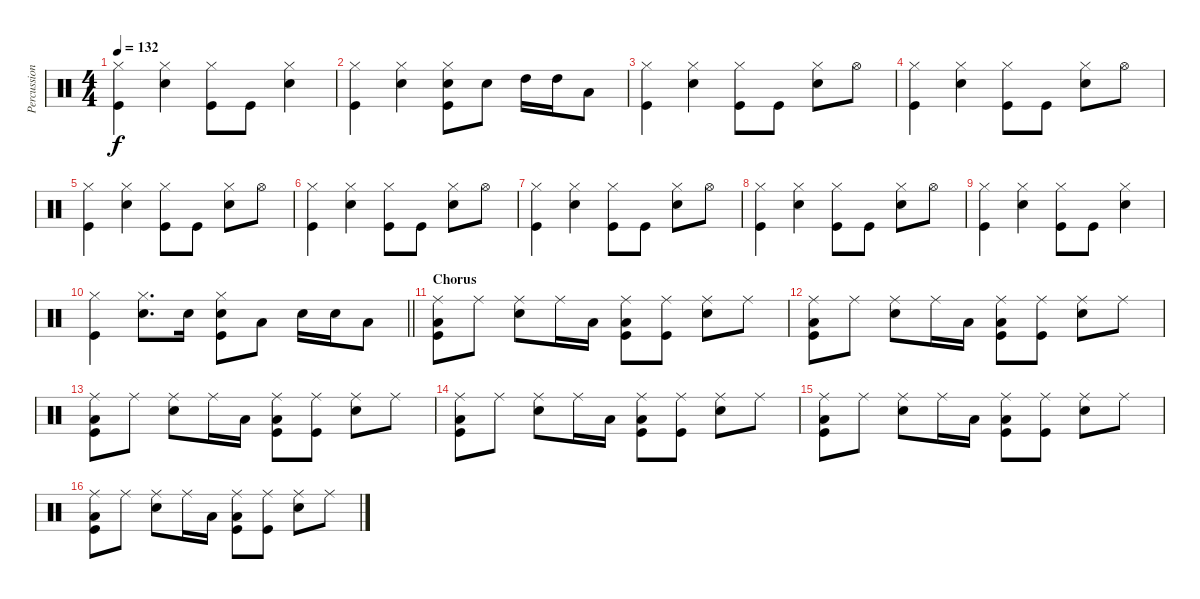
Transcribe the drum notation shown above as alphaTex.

\track ("Percussion" "Percussion") {instrument percussion}
\staff {score}
\articulation defaults
\ts (4 4)
\tempo 132
\clef neutral
\ks c
("Hi-Hat (closed)" "Kick (hit)").4{dy f} ("Hi-Hat (closed)" "Snare (hit) 2").4 ("Hi-Hat (closed)" "Kick (hit)").8 "Kick (hit)".8 ("Hi-Hat (closed)" "Snare (hit) 2").4 |
("Hi-Hat (closed)" "Kick (hit)").4 ("Hi-Hat (closed)" "Snare (hit) 2").4 ("Hi-Hat (closed)" "Snare (hit) 2" "Kick (hit)").8 "Snare (hit) 2".8 "High Tom (hit)".16 "High Tom (hit)".16 "Low Tom (hit)".8 |
("Hi-Hat (closed)" "Kick (hit)").4 ("Hi-Hat (closed)" "Snare (hit) 2").4 ("Hi-Hat (closed)" "Kick (hit)").8 "Kick (hit)".8 ("Hi-Hat (closed)" "Snare (hit) 2").8 "Hi-Hat (open)".8 |
("Hi-Hat (closed)" "Kick (hit)").4 ("Hi-Hat (closed)" "Snare (hit) 2").4 ("Hi-Hat (closed)" "Kick (hit)").8 "Kick (hit)".8 ("Hi-Hat (closed)" "Snare (hit) 2").8 "Hi-Hat (open)".8 |
("Hi-Hat (closed)" "Kick (hit)").4 ("Hi-Hat (closed)" "Snare (hit) 2").4 ("Hi-Hat (closed)" "Kick (hit)").8 "Kick (hit)".8 ("Hi-Hat (closed)" "Snare (hit) 2").8 "Hi-Hat (open)".8 |
("Hi-Hat (closed)" "Kick (hit)").4 ("Hi-Hat (closed)" "Snare (hit) 2").4 ("Hi-Hat (closed)" "Kick (hit)").8 "Kick (hit)".8 ("Hi-Hat (closed)" "Snare (hit) 2").8 "Hi-Hat (open)".8 |
("Hi-Hat (closed)" "Kick (hit)").4 ("Hi-Hat (closed)" "Snare (hit) 2").4 ("Hi-Hat (closed)" "Kick (hit)").8 "Kick (hit)".8 ("Hi-Hat (closed)" "Snare (hit) 2").8 "Hi-Hat (open)".8 |
("Hi-Hat (closed)" "Kick (hit)").4 ("Hi-Hat (closed)" "Snare (hit) 2").4 ("Hi-Hat (closed)" "Kick (hit)").8 "Kick (hit)".8 ("Hi-Hat (closed)" "Snare (hit) 2").8 "Hi-Hat (open)".8 |
("Hi-Hat (closed)" "Kick (hit)").4 ("Hi-Hat (closed)" "Snare (hit) 2").4 ("Hi-Hat (closed)" "Kick (hit)").8 "Kick (hit)".8 ("Hi-Hat (closed)" "Snare (hit) 2").4 |
\barLineRight lightlight
("Hi-Hat (closed)" "Kick (hit)").4 ("Hi-Hat (closed)" "Snare (hit) 2").8{d} "Snare (hit) 2".16 ("Hi-Hat (closed)" "Snare (hit) 2" "Kick (hit)").8 "Low Tom (hit)".8 "Snare (hit) 2".16 "Snare (hit) 2".16 "Low Tom (hit)".8 |
\section ("" "Chorus")
("Ride (middle)" "Low Tom (hit)" "Kick (hit)").8 "Ride (middle)".8 ("Ride (middle)" "Snare (hit) 2").8 "Ride (middle)".16 "Low Tom (hit)".16 ("Ride (middle)" "Low Tom (hit)" "Kick (hit)").8 ("Ride (middle)" "Kick (hit)").8 ("Ride (middle)" "Snare (hit) 2").8 "Ride (middle)".8 |
("Ride (middle)" "Low Tom (hit)" "Kick (hit)").8 "Ride (middle)".8 ("Ride (middle)" "Snare (hit) 2").8 "Ride (middle)".16 "Low Tom (hit)".16 ("Ride (middle)" "Low Tom (hit)" "Kick (hit)").8 ("Ride (middle)" "Kick (hit)").8 ("Ride (middle)" "Snare (hit) 2").8 "Ride (middle)".8 |
("Ride (middle)" "Low Tom (hit)" "Kick (hit)").8 "Ride (middle)".8 ("Ride (middle)" "Snare (hit) 2").8 "Ride (middle)".16 "Low Tom (hit)".16 ("Ride (middle)" "Low Tom (hit)" "Kick (hit)").8 ("Ride (middle)" "Kick (hit)").8 ("Ride (middle)" "Snare (hit) 2").8 "Ride (middle)".8 |
("Ride (middle)" "Low Tom (hit)" "Kick (hit)").8 "Ride (middle)".8 ("Ride (middle)" "Snare (hit) 2").8 "Ride (middle)".16 "Low Tom (hit)".16 ("Ride (middle)" "Low Tom (hit)" "Kick (hit)").8 ("Ride (middle)" "Kick (hit)").8 ("Ride (middle)" "Snare (hit) 2").8 "Ride (middle)".8 |
("Ride (middle)" "Low Tom (hit)" "Kick (hit)").8 "Ride (middle)".8 ("Ride (middle)" "Snare (hit) 2").8 "Ride (middle)".16 "Low Tom (hit)".16 ("Ride (middle)" "Low Tom (hit)" "Kick (hit)").8 ("Ride (middle)" "Kick (hit)").8 ("Ride (middle)" "Snare (hit) 2").8 "Ride (middle)".8 |
("Ride (middle)" "Low Tom (hit)" "Kick (hit)").8 "Ride (middle)".8 ("Ride (middle)" "Snare (hit) 2").8 "Ride (middle)".16 "Low Tom (hit)".16 ("Ride (middle)" "Low Tom (hit)" "Kick (hit)").8 ("Ride (middle)" "Kick (hit)").8 ("Ride (middle)" "Snare (hit) 2").8 "Ride (middle)".8
